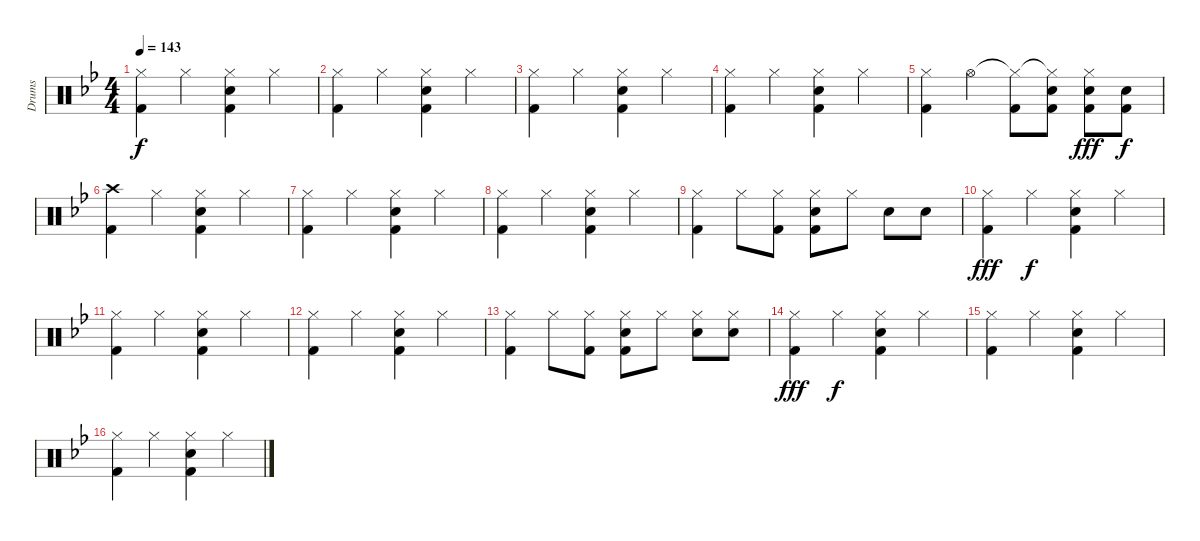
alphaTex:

\track ("Drums" "Drums") {instrument percussion}
\staff {score}
\articulation defaults
\ts (4 4)
\tempo 143
\clef neutral
\ks bb
("Hi-Hat (closed)" "Kick (hit) 2").4{dy f} "Hi-Hat (closed)".4 ("Hi-Hat (closed)" "Snare (hit) 2" "Kick (hit) 2").4 "Hi-Hat (closed)".4 |
("Hi-Hat (closed)" "Kick (hit) 2").4 "Hi-Hat (closed)".4 ("Hi-Hat (closed)" "Snare (hit) 2" "Kick (hit) 2").4 "Hi-Hat (closed)".4 |
("Hi-Hat (closed)" "Kick (hit) 2").4 "Hi-Hat (closed)".4 ("Hi-Hat (closed)" "Snare (hit) 2" "Kick (hit) 2").4 "Hi-Hat (closed)".4 |
("Hi-Hat (closed)" "Kick (hit) 2").4 "Hi-Hat (closed)".4 ("Hi-Hat (closed)" "Snare (hit) 2" "Kick (hit) 2").4 "Hi-Hat (closed)".4 |
("Hi-Hat (closed)" "Kick (hit) 2").4 "Hi-Hat (open)".4 ("Hi-Hat (closed)"{t} "Kick (hit) 2").8 ("Hi-Hat (closed)"{t} "Snare (hit) 2" "Kick (hit) 2").8 ("Hi-Hat (closed)" "Snare (hit) 2" "Kick (hit) 2").8{dy fff} ("Snare (hit) 2" "Kick (hit) 2").8{dy f} |
("Crash high (hit)" "Kick (hit) 2").4 "Hi-Hat (closed)".4 ("Hi-Hat (closed)" "Snare (hit) 2" "Kick (hit) 2").4 "Hi-Hat (closed)".4 |
("Hi-Hat (closed)" "Kick (hit) 2").4 "Hi-Hat (closed)".4 ("Hi-Hat (closed)" "Snare (hit) 2" "Kick (hit) 2").4 "Hi-Hat (closed)".4 |
("Hi-Hat (closed)" "Kick (hit) 2").4 "Hi-Hat (closed)".4 ("Hi-Hat (closed)" "Snare (hit) 2" "Kick (hit) 2").4 "Hi-Hat (closed)".4 |
("Hi-Hat (closed)" "Kick (hit) 2").4 "Hi-Hat (closed)".8 ("Hi-Hat (closed)" "Kick (hit) 2").8 ("Hi-Hat (closed)" "Snare (hit) 2" "Kick (hit) 2").8 "Hi-Hat (closed)".8 "Snare (hit) 2".8 "Snare (hit) 2".8 |
("Hi-Hat (closed)" "Kick (hit) 2").4{dy fff} "Hi-Hat (closed)".4{dy f} ("Hi-Hat (closed)" "Snare (hit) 2" "Kick (hit) 2").4 "Hi-Hat (closed)".4 |
("Hi-Hat (closed)" "Kick (hit) 2").4 "Hi-Hat (closed)".4 ("Hi-Hat (closed)" "Snare (hit) 2" "Kick (hit) 2").4 "Hi-Hat (closed)".4 |
("Hi-Hat (closed)" "Kick (hit) 2").4 "Hi-Hat (closed)".4 ("Hi-Hat (closed)" "Snare (hit) 2" "Kick (hit) 2").4 "Hi-Hat (closed)".4 |
("Hi-Hat (closed)" "Kick (hit) 2").4 "Hi-Hat (closed)".8 ("Hi-Hat (closed)" "Kick (hit) 2").8 ("Hi-Hat (closed)" "Snare (hit) 2" "Kick (hit) 2").8 "Hi-Hat (closed)".8 ("Hi-Hat (closed)" "Snare (hit) 2").8 ("Hi-Hat (closed)" "Snare (hit) 2").8 |
("Hi-Hat (closed)" "Kick (hit) 2").4{dy fff} "Hi-Hat (closed)".4{dy f} ("Hi-Hat (closed)" "Snare (hit) 2" "Kick (hit) 2").4 "Hi-Hat (closed)".4 |
("Hi-Hat (closed)" "Kick (hit) 2").4 "Hi-Hat (closed)".4 ("Hi-Hat (closed)" "Snare (hit) 2" "Kick (hit) 2").4 "Hi-Hat (closed)".4 |
("Hi-Hat (closed)" "Kick (hit) 2").4 "Hi-Hat (closed)".4 ("Hi-Hat (closed)" "Snare (hit) 2" "Kick (hit) 2").4 "Hi-Hat (closed)".4
